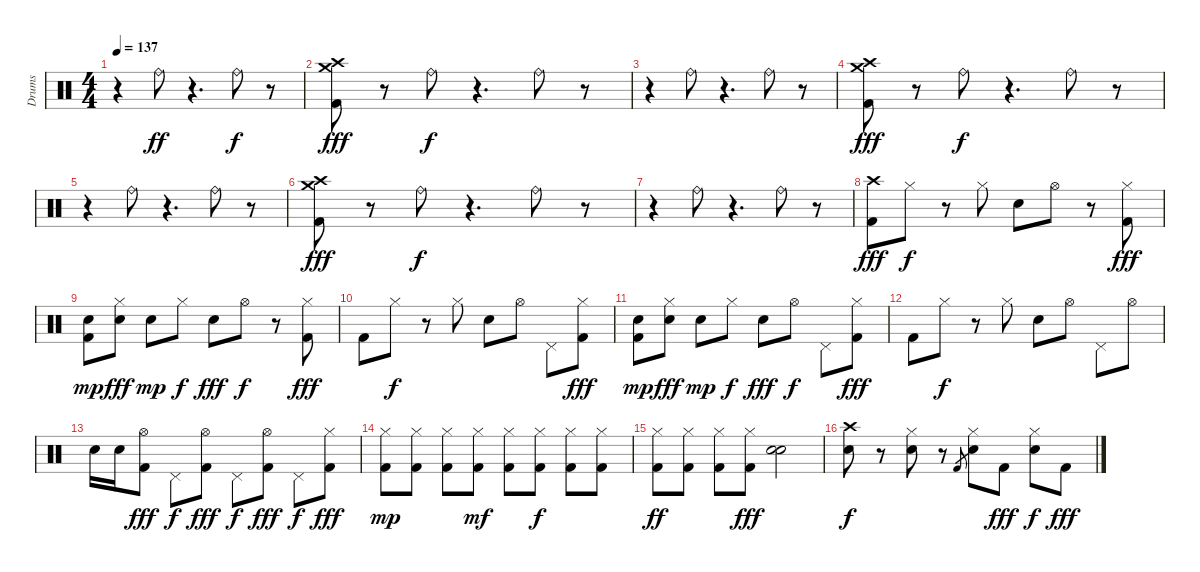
\track ("Drums" "Drums") {instrument percussion}
\staff {score}
\articulation defaults
\ts (4 4)
\tempo 137
\clef neutral
\ks c
r.4{dy f} "Ride (bell)".8{dy ff} r.4{d} "Ride (bell)".8{dy f} r.8 |
("Kick (hit) 2" "Crash high (hit)" "Crash medium (hit)").8{dy fff} r.8 "Ride (bell)".8{dy f} r.4{d} "Ride (bell)".8 r.8 |
r.4 "Ride (bell)".8 r.4{d} "Ride (bell)".8 r.8 |
("Kick (hit) 2" "Crash high (hit)" "Crash medium (hit)").8{dy fff} r.8 "Ride (bell)".8{dy f} r.4{d} "Ride (bell)".8 r.8 |
r.4 "Ride (bell)".8 r.4{d} "Ride (bell)".8 r.8 |
("Kick (hit) 2" "Crash high (hit)" "Crash medium (hit)").8{dy fff} r.8 "Ride (bell)".8{dy f} r.4{d} "Ride (bell)".8 r.8 |
r.4 "Ride (bell)".8 r.4{d} "Ride (bell)".8 r.8 |
("Kick (hit) 2" "Crash high (hit)").8{dy fff} "Hi-Hat (closed)".8{dy f} r.8 "Hi-Hat (closed)".8 "Snare (hit) 2".8 "Hi-Hat (open)".8 r.8 ("Kick (hit) 2" "Hi-Hat (closed)").8{dy fff} |
("Kick (hit) 2" "Snare (hit) 2").8{dy mp} ("Snare (hit) 2" "Hi-Hat (closed)").8{dy fff} "Snare (hit) 2".8{dy mp} "Hi-Hat (closed)".8{dy f} "Snare (hit) 2".8{dy fff} "Hi-Hat (open)".8{dy f} r.8 ("Kick (hit) 2" "Hi-Hat (closed)").8{dy fff} |
"Kick (hit) 2".8 "Hi-Hat (closed)".8{dy f} r.8 "Hi-Hat (closed)".8 "Snare (hit) 2".8 "Hi-Hat (open)".8 "Pedal Hi-Hat (hit)".8 ("Kick (hit) 2" "Hi-Hat (closed)").8{dy fff} |
("Kick (hit) 2" "Snare (hit) 2").8{dy mp} ("Snare (hit) 2" "Hi-Hat (closed)").8{dy fff} "Snare (hit) 2".8{dy mp} "Hi-Hat (closed)".8{dy f} "Snare (hit) 2".8{dy fff} "Hi-Hat (open)".8{dy f} "Pedal Hi-Hat (hit)".8 ("Kick (hit) 2" "Hi-Hat (closed)").8{dy fff} |
"Kick (hit) 2".8 "Hi-Hat (closed)".8{dy f} r.8 "Hi-Hat (closed)".8 "Snare (hit) 2".8 "Hi-Hat (open)".8 "Pedal Hi-Hat (hit)".8 "Hi-Hat (open)".8 |
"Snare (hit) 2".16 "Snare (hit) 2".16 ("Kick (hit) 2" "Hi-Hat (open)").8{dy fff} "Pedal Hi-Hat (hit)".8{dy f} ("Kick (hit) 2" "Hi-Hat (open)").8{dy fff} "Pedal Hi-Hat (hit)".8{dy f} ("Kick (hit) 2" "Hi-Hat (open)").8{dy fff} "Pedal Hi-Hat (hit)".8{dy f} ("Kick (hit) 2" "Hi-Hat (closed)").8{dy fff} |
("Kick (hit) 2" "Hi-Hat (closed)").8{dy mp} ("Kick (hit) 2" "Hi-Hat (closed)").8 ("Kick (hit) 2" "Hi-Hat (closed)").8 ("Kick (hit) 2" "Hi-Hat (closed)").8{dy mf} ("Kick (hit) 2" "Hi-Hat (closed)").8 ("Kick (hit) 2" "Hi-Hat (closed)").8{dy f} ("Kick (hit) 2" "Hi-Hat (closed)").8 ("Kick (hit) 2" "Hi-Hat (closed)").8 |
("Kick (hit) 2" "Hi-Hat (closed)").8{dy ff} ("Kick (hit) 2" "Hi-Hat (closed)").8 ("Kick (hit) 2" "Hi-Hat (closed)").8 ("Kick (hit) 2" "Hi-Hat (closed)").8{dy fff} ("Snare (hit) 2" "Snare (hit) 2").2 |
("Snare (hit) 2" "Crash high (hit)").8{dy f} r.8 ("Snare (hit) 2" "Hi-Hat (closed)").8 r.8 "Kick (hit) 2".8{gr} ("Snare (hit) 2" "Hi-Hat (closed)").8 "Kick (hit) 2".8{dy fff} ("Snare (hit) 2" "Hi-Hat (closed)").8{dy f} "Kick (hit) 2".8{dy fff}
